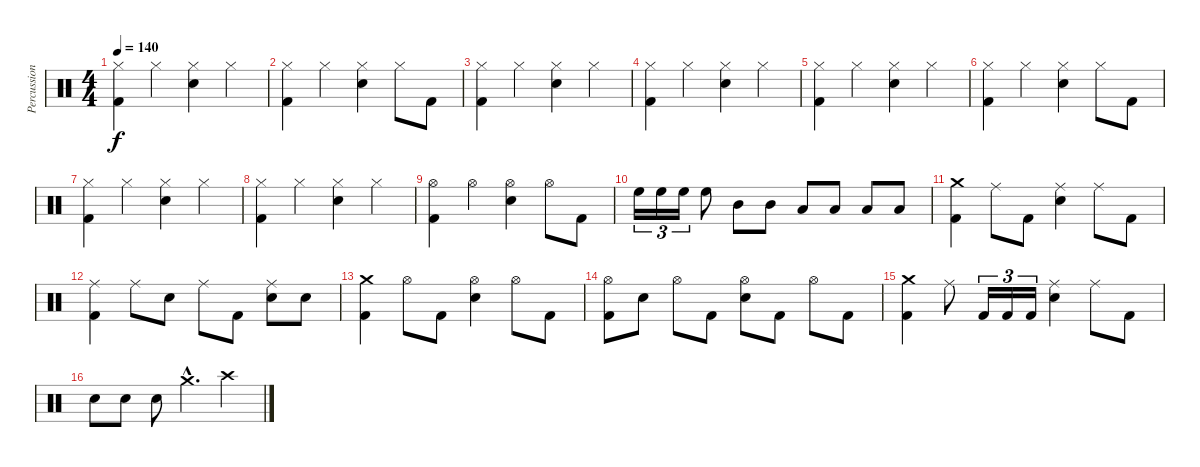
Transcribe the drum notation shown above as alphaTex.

\track ("Percussion" "Percussion") {instrument percussion}
\staff {score}
\articulation defaults
\ts (4 4)
\tempo 140
\clef neutral
\ks c
("Hi-Hat (closed)" "Kick (hit) 2").4{dy f} "Hi-Hat (closed)".4 ("Hi-Hat (closed)" "Snare (hit) 2").4 "Hi-Hat (closed)".4 |
("Hi-Hat (closed)" "Kick (hit) 2").4 "Hi-Hat (closed)".4 ("Hi-Hat (closed)" "Snare (hit) 2").4 "Hi-Hat (closed)".8 "Kick (hit) 2".8 |
("Hi-Hat (closed)" "Kick (hit) 2").4 "Hi-Hat (closed)".4 ("Hi-Hat (closed)" "Snare (hit) 2").4 "Hi-Hat (closed)".4 |
("Hi-Hat (closed)" "Kick (hit) 2").4 "Hi-Hat (closed)".4 ("Hi-Hat (closed)" "Snare (hit) 2").4 "Hi-Hat (closed)".4 |
("Hi-Hat (closed)" "Kick (hit) 2").4 "Hi-Hat (closed)".4 ("Hi-Hat (closed)" "Snare (hit) 2").4 "Hi-Hat (closed)".4 |
("Hi-Hat (closed)" "Kick (hit) 2").4 "Hi-Hat (closed)".4 ("Hi-Hat (closed)" "Snare (hit) 2").4 "Hi-Hat (closed)".8 "Kick (hit) 2".8 |
("Hi-Hat (closed)" "Kick (hit) 2").4 "Hi-Hat (closed)".4 ("Hi-Hat (closed)" "Snare (hit) 2").4 "Hi-Hat (closed)".4 |
("Hi-Hat (closed)" "Kick (hit) 2").4 "Hi-Hat (closed)".4 ("Hi-Hat (closed)" "Snare (hit) 2").4 "Hi-Hat (closed)".4 |
("Hi-Hat (open)" "Kick (hit) 2").4 "Hi-Hat (open)".4 ("Hi-Hat (open)" "Snare (hit) 2").4 "Hi-Hat (open)".8 "Kick (hit) 2".8 |
"High Floor Tom (hit)".16{tu (3 2)} "High Floor Tom (hit)".16{tu (3 2)} "High Floor Tom (hit)".16{tu (3 2)} "High Floor Tom (hit)".8 "Mid Tom (hit)".8 "Mid Tom (hit)".8 "Low Tom (hit)".8 "Low Tom (hit)".8 "Low Floor Tom (hit)".8 "Low Floor Tom (hit)".8 |
("Crash medium (hit)" "Kick (hit) 2").4 "Ride (middle)".8 "Kick (hit) 2".8 ("Ride (middle)" "Snare (hit) 2").4 "Ride (middle)".8 "Kick (hit) 2".8 |
("Ride (middle)" "Kick (hit) 2").4 "Ride (middle)".8 "Snare (hit) 2".8 "Ride (middle)".8 "Kick (hit) 2".8 ("Ride (middle)" "Snare (hit) 2").8 "Snare (hit) 2".8 |
("Crash medium (hit)" "Kick (hit) 2").4 "Hi-Hat (open)".8 "Kick (hit) 2".8 ("Hi-Hat (open)" "Snare (hit) 2").4 "Hi-Hat (open)".8 "Kick (hit) 2".8 |
("Hi-Hat (open)" "Kick (hit) 2").8 "Snare (hit) 2".8 "Hi-Hat (open)".8 "Kick (hit) 2".8 ("Hi-Hat (open)" "Snare (hit) 2").8 "Kick (hit) 2".8 "Hi-Hat (open)".8 "Kick (hit) 2".8 |
("Crash medium (hit)" "Kick (hit) 2").4 "Ride (middle)".8 "Kick (hit) 2".16{tu (3 2)} "Kick (hit) 2".16{tu (3 2)} "Kick (hit) 2".16{tu (3 2)} ("Ride (middle)" "Snare (hit) 2").4 "Ride (middle)".8 "Kick (hit) 2".8 |
"Snare (hit) 2".8 "Snare (hit) 2".8 "Snare (hit) 2".8 "Crash medium (hit)"{hac}.4{d} "Crash high (hit)".4
